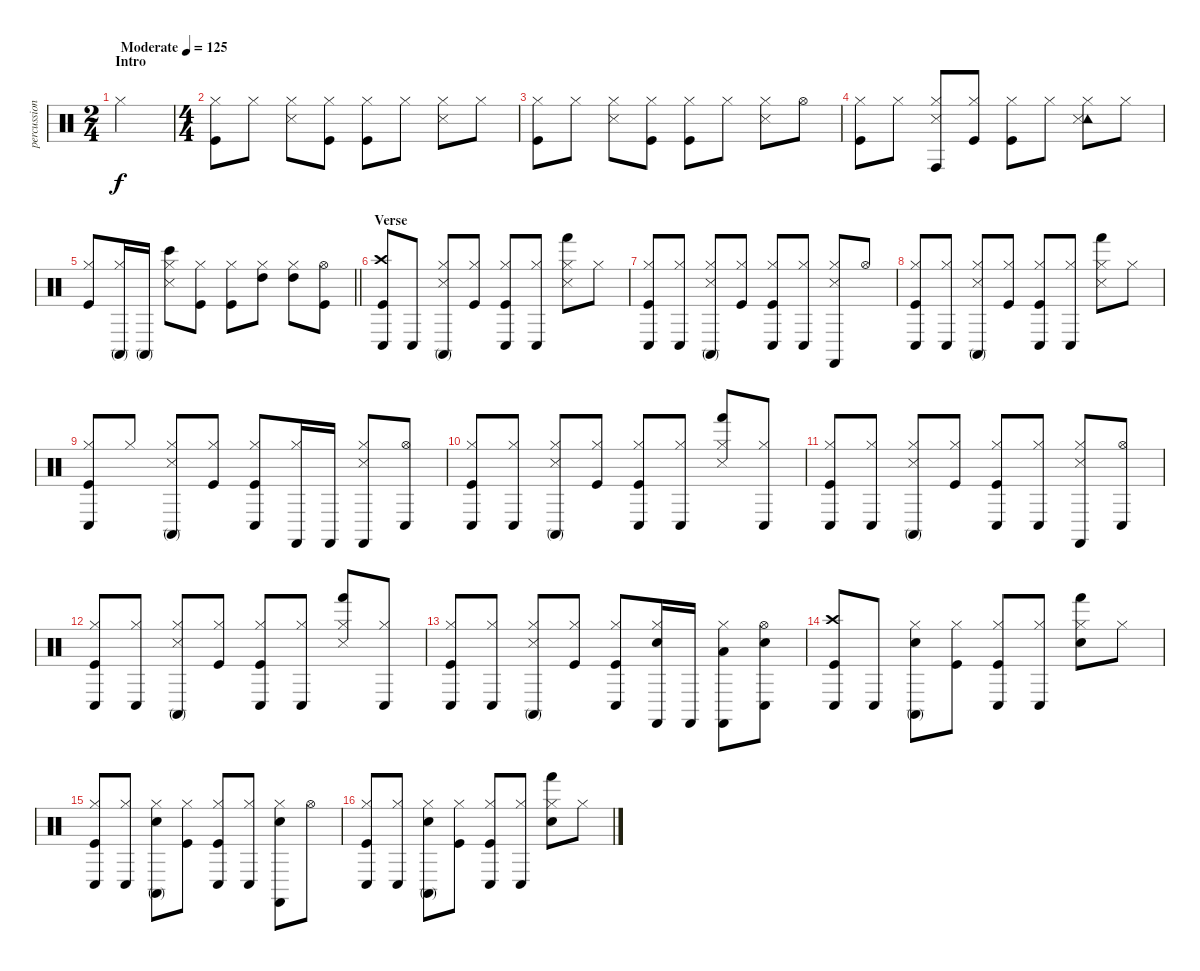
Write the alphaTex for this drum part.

\track ("percussion" "percussion") {instrument percussion}
\staff {score}
\articulation defaults
\ts (2 4)
\section ("" "Intro")
\tempo (125 "Moderate")
\clef neutral
\ks c "Hi-Hat (closed)".2{dy f}
|
\ts (4 4)
("Hi-Hat (closed)" "Kick (hit)").8 "Hi-Hat (closed)".8 ("Snare (side stick) 3" "Hi-Hat (closed)").8 ("Hi-Hat (closed)" "Kick (hit)").8 ("Hi-Hat (closed)" "Kick (hit)").8 "Hi-Hat (closed)".8 ("Snare (side stick) 3" "Hi-Hat (closed)").8 "Hi-Hat (closed)".8 |
("Hi-Hat (closed)" "Kick (hit)").8 "Hi-Hat (closed)".8 ("Snare (side stick) 3" "Hi-Hat (closed)").8 ("Hi-Hat (closed)" "Kick (hit)").8 ("Hi-Hat (closed)" "Kick (hit)").8 "Hi-Hat (closed)".8 ("Snare (side stick) 3" "Hi-Hat (closed)").8 "Hi-Hat (open)".8 |
("Hi-Hat (closed)" "Kick (hit)").8 "Hi-Hat (closed)".8 ("Conga high (hit)" "Snare (side stick) 3" "Hi-Hat (closed)").8 ("Hi-Hat (closed)" "Kick (hit)").8 ("Hi-Hat (closed)" "Kick (hit)").8 "Hi-Hat (closed)".8 ("Tambourine (hit)" "Snare (side stick) 3" "Hi-Hat (closed)").8 "Hi-Hat (closed)".8 |
\barLineRight lightlight
("Hi-Hat (closed)" "Kick (hit)").8 ("Conga high (mute)" "Hi-Hat (closed)").16 "Conga high (mute)".16 ("Bongo High (hit)" "Snare (side stick) 3" "Hi-Hat (closed)").8 ("Hi-Hat (closed)" "Kick (hit)").8 ("Hi-Hat (closed)" "Kick (hit)").8 ("High Tom (hit)" "Hi-Hat (closed)").8 ("High Tom (hit)" "Hi-Hat (closed)").8 ("Hi-Hat (open)" "Kick (hit)").8 |
\section ("" "Verse")
("Crash high (hit)" "Conga low (hit)" "Kick (hit)").8 "Conga low (hit)".8 ("Conga high (mute)" "Snare (side stick) 3" "Hi-Hat (closed)").8 ("Hi-Hat (closed)" "Kick (hit)").8 ("Conga low (hit)" "Hi-Hat (closed)" "Kick (hit)").8 ("Conga low (hit)" "Hi-Hat (closed)").8 ("Hand (hit)" "Snare (side stick) 3" "Hi-Hat (closed)").8 "Hi-Hat (closed)".8 |
("Conga low (hit)" "Hi-Hat (closed)" "Kick (hit)").8 ("Conga low (hit)" "Hi-Hat (closed)").8 ("Conga high (mute)" "Snare (side stick) 3" "Hi-Hat (closed)").8 ("Hi-Hat (closed)" "Kick (hit)").8 ("Conga low (hit)" "Hi-Hat (closed)" "Kick (hit)").8 ("Conga low (hit)" "Hi-Hat (closed)").8 ("Castanets (hit)" "Snare (side stick) 3" "Hi-Hat (closed)").8 "Hi-Hat (open)".8 |
("Conga low (hit)" "Hi-Hat (closed)" "Kick (hit)").8 ("Conga low (hit)" "Hi-Hat (closed)").8 ("Conga high (mute)" "Snare (side stick) 3" "Hi-Hat (closed)").8 ("Hi-Hat (closed)" "Kick (hit)").8 ("Conga low (hit)" "Hi-Hat (closed)" "Kick (hit)").8 ("Conga low (hit)" "Hi-Hat (closed)").8 ("Hand (hit)" "Snare (side stick) 3" "Hi-Hat (closed)").8 "Hi-Hat (closed)".8 |
("Conga low (hit)" "Hi-Hat (closed)" "Kick (hit)").8 "Hi-Hat (closed)".8 ("Conga high (mute)" "Snare (side stick) 3" "Hi-Hat (closed)").8 ("Hi-Hat (closed)" "Kick (hit)").8 ("Conga low (hit)" "Hi-Hat (closed)" "Kick (hit)").8 ("Castanets (hit)" "Hi-Hat (closed)").16 "Castanets (hit)".16 ("Castanets (hit)" "Snare (side stick) 3" "Hi-Hat (closed)").8 ("Conga low (hit)" "Hi-Hat (open)").8 |
("Conga low (hit)" "Hi-Hat (closed)" "Kick (hit)").8 ("Conga low (hit)" "Hi-Hat (closed)").8 ("Conga high (mute)" "Snare (side stick) 3" "Hi-Hat (closed)").8 ("Hi-Hat (closed)" "Kick (hit)").8 ("Conga low (hit)" "Hi-Hat (closed)" "Kick (hit)").8 ("Conga low (hit)" "Hi-Hat (closed)").8 ("Hand (hit)" "Snare (side stick) 3" "Hi-Hat (closed)").8 ("Conga low (hit)" "Hi-Hat (closed)").8 |
("Conga low (hit)" "Hi-Hat (closed)" "Kick (hit)").8 ("Conga low (hit)" "Hi-Hat (closed)").8 ("Conga high (mute)" "Snare (side stick) 3" "Hi-Hat (closed)").8 ("Hi-Hat (closed)" "Kick (hit)").8 ("Conga low (hit)" "Hi-Hat (closed)" "Kick (hit)").8 ("Conga low (hit)" "Hi-Hat (closed)").8 ("Castanets (hit)" "Snare (side stick) 3" "Hi-Hat (closed)").8 ("Conga low (hit)" "Hi-Hat (open)").8 |
("Conga low (hit)" "Hi-Hat (closed)" "Kick (hit)").8 ("Conga low (hit)" "Hi-Hat (closed)").8 ("Conga high (mute)" "Snare (side stick) 3" "Hi-Hat (closed)").8 ("Hi-Hat (closed)" "Kick (hit)").8 ("Conga low (hit)" "Hi-Hat (closed)" "Kick (hit)").8 ("Conga low (hit)" "Hi-Hat (closed)").8 ("Hand (hit)" "Snare (side stick) 3" "Hi-Hat (closed)").8 ("Conga low (hit)" "Hi-Hat (closed)").8 |
("Conga low (hit)" "Hi-Hat (closed)" "Kick (hit)").8 ("Conga low (hit)" "Hi-Hat (closed)").8 ("Conga high (mute)" "Snare (side stick) 3" "Hi-Hat (closed)").8 ("Hi-Hat (closed)" "Kick (hit)").8 ("Conga low (hit)" "Hi-Hat (closed)" "Kick (hit)").8 ("Castanets (hit)" "Electric Snare (hit)" "Hi-Hat (closed)").16 "Castanets (hit)".16 ("Castanets (hit)" "Low Tom (hit)" "Hi-Hat (closed)").8 ("Conga low (hit)" "Electric Snare (hit)" "Hi-Hat (open)").8 |
("Crash high (hit)" "Conga low (hit)" "Kick (hit)").8 "Conga low (hit)".8 ("Conga high (mute)" "Electric Snare (hit)" "Hi-Hat (closed)").8 ("Hi-Hat (closed)" "Kick (hit)").8 ("Conga low (hit)" "Hi-Hat (closed)" "Kick (hit)").8 ("Conga low (hit)" "Hi-Hat (closed)").8 ("Hand (hit)" "Electric Snare (hit)" "Hi-Hat (closed)").8 "Hi-Hat (closed)".8 |
("Conga low (hit)" "Hi-Hat (closed)" "Kick (hit)").8 ("Conga low (hit)" "Hi-Hat (closed)").8 ("Conga high (mute)" "Electric Snare (hit)" "Hi-Hat (closed)").8 ("Hi-Hat (closed)" "Kick (hit)").8 ("Conga low (hit)" "Hi-Hat (closed)" "Kick (hit)").8 ("Conga low (hit)" "Hi-Hat (closed)").8 ("Castanets (hit)" "Electric Snare (hit)" "Hi-Hat (closed)").8 "Hi-Hat (open)".8 |
("Conga low (hit)" "Hi-Hat (closed)" "Kick (hit)").8 ("Conga low (hit)" "Hi-Hat (closed)").8 ("Conga high (mute)" "Electric Snare (hit)" "Hi-Hat (closed)").8 ("Hi-Hat (closed)" "Kick (hit)").8 ("Conga low (hit)" "Hi-Hat (closed)" "Kick (hit)").8 ("Conga low (hit)" "Hi-Hat (closed)").8 ("Hand (hit)" "Electric Snare (hit)" "Hi-Hat (closed)").8 "Hi-Hat (closed)".8
